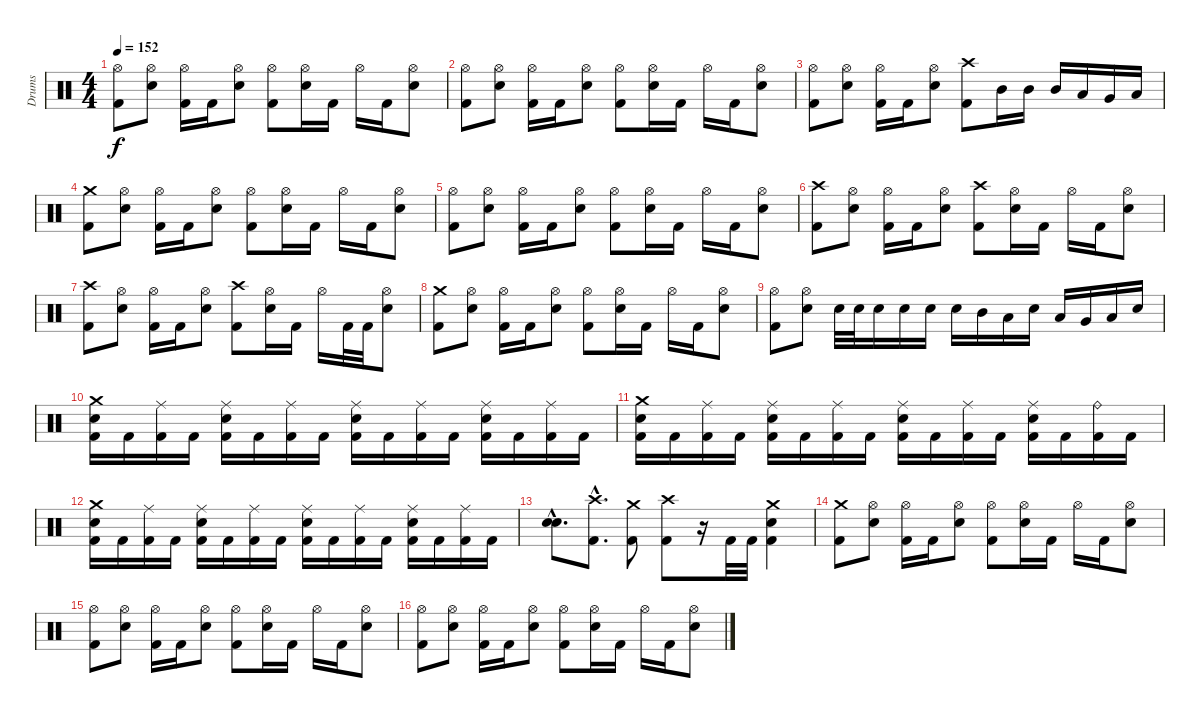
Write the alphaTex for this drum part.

\track ("Drums" "Drums") {instrument percussion}
\staff {score}
\articulation defaults
\ts (4 4)
\tempo 152
\clef neutral
\ks c
("Hi-Hat (open)" "Kick (hit) 2").8{dy f} ("Hi-Hat (open)" "Snare (hit) 2").8 ("Hi-Hat (open)" "Kick (hit) 2").16 "Kick (hit) 2".16 ("Hi-Hat (open)" "Snare (hit) 2").8 ("Hi-Hat (open)" "Kick (hit) 2").8 ("Hi-Hat (open)" "Snare (hit) 2").16 "Kick (hit) 2".16 "Hi-Hat (open)".16 "Kick (hit) 2".16 ("Hi-Hat (open)" "Snare (hit) 2").8 |
("Hi-Hat (open)" "Kick (hit) 2").8 ("Hi-Hat (open)" "Snare (hit) 2").8 ("Hi-Hat (open)" "Kick (hit) 2").16 "Kick (hit) 2".16 ("Hi-Hat (open)" "Snare (hit) 2").8 ("Hi-Hat (open)" "Kick (hit) 2").8 ("Hi-Hat (open)" "Snare (hit) 2").16 "Kick (hit) 2".16 "Hi-Hat (open)".16 "Kick (hit) 2".16 ("Hi-Hat (open)" "Snare (hit) 2").8 |
("Hi-Hat (open)" "Kick (hit) 2").8 ("Hi-Hat (open)" "Snare (hit) 2").8 ("Hi-Hat (open)" "Kick (hit) 2").16 "Kick (hit) 2".16 ("Hi-Hat (open)" "Snare (hit) 2").8 ("Crash high (hit)" "Kick (hit) 2").8 "Mid Tom (hit)".16 "Mid Tom (hit)".16 "Mid Tom (hit)".16 "Low Tom (hit)".16 "Very Low Tom (hit)".16 "Low Floor Tom (hit)".16 |
("Crash medium (hit)" "Kick (hit) 2").8 ("Hi-Hat (open)" "Snare (hit) 2").8 ("Hi-Hat (open)" "Kick (hit) 2").16 "Kick (hit) 2".16 ("Hi-Hat (open)" "Snare (hit) 2").8 ("Hi-Hat (open)" "Kick (hit) 2").8 ("Hi-Hat (open)" "Snare (hit) 2").16 "Kick (hit) 2".16 "Hi-Hat (open)".16 "Kick (hit) 2".16 ("Hi-Hat (open)" "Snare (hit) 2").8 |
("Hi-Hat (open)" "Kick (hit) 2").8 ("Hi-Hat (open)" "Snare (hit) 2").8 ("Hi-Hat (open)" "Kick (hit) 2").16 "Kick (hit) 2".16 ("Hi-Hat (open)" "Snare (hit) 2").8 ("Hi-Hat (open)" "Kick (hit) 2").8 ("Hi-Hat (open)" "Snare (hit) 2").16 "Kick (hit) 2".16 "Hi-Hat (open)".16 "Kick (hit) 2".16 ("Hi-Hat (open)" "Snare (hit) 2").8 |
("Crash high (hit)" "Kick (hit) 2").8 ("Hi-Hat (open)" "Snare (hit) 2").8 ("Hi-Hat (open)" "Kick (hit) 2").16 "Kick (hit) 2".16 ("Hi-Hat (open)" "Snare (hit) 2").8 ("Crash high (hit)" "Kick (hit) 2").8 ("Hi-Hat (open)" "Snare (hit) 2").16 "Kick (hit) 2".16 "Hi-Hat (open)".16 "Kick (hit) 2".16 ("Hi-Hat (open)" "Snare (hit) 2").8 |
("Crash high (hit)" "Kick (hit) 2").8 ("Hi-Hat (open)" "Snare (hit) 2").8 ("Hi-Hat (open)" "Kick (hit) 2").16 "Kick (hit) 2".16 ("Hi-Hat (open)" "Snare (hit) 2").8 ("Crash high (hit)" "Kick (hit) 2").8 ("Hi-Hat (open)" "Snare (hit) 2").16 "Kick (hit) 2".16 "Hi-Hat (open)".16 "Kick (hit) 2".32 "Kick (hit) 2".32 ("Hi-Hat (open)" "Snare (hit) 2").8 |
("Crash medium (hit)" "Kick (hit) 2").8 ("Hi-Hat (open)" "Snare (hit) 2").8 ("Hi-Hat (open)" "Kick (hit) 2").16 "Kick (hit) 2".16 ("Hi-Hat (open)" "Snare (hit) 2").8 ("Hi-Hat (open)" "Kick (hit) 2").8 ("Hi-Hat (open)" "Snare (hit) 2").16 "Kick (hit) 2".16 "Hi-Hat (open)".16 "Kick (hit) 2".16 ("Hi-Hat (open)" "Snare (hit) 2").8 |
("Hi-Hat (open)" "Kick (hit) 2").8 ("Hi-Hat (open)" "Snare (hit) 2").8 "Snare (hit) 2".32 "Snare (hit) 2".32 "Snare (hit) 2".16 "Snare (hit) 2".16 "Snare (hit) 2".16 "Snare (hit) 2".16 "Mid Tom (hit)".16 "Low Tom (hit)".16 "Snare (hit) 2".16 "Low Tom (hit)".16 "Very Low Tom (hit)".16 "Low Floor Tom (hit)".16 "Snare (hit) 2".16 |
("Crash medium (hit)" "Snare (hit) 2" "Kick (hit) 2").16 "Kick (hit) 2".16 ("Ride (middle)" "Kick (hit) 2").16 "Kick (hit) 2".16 ("Ride (middle)" "Snare (hit) 2" "Kick (hit) 2").16 "Kick (hit) 2".16 ("Ride (middle)" "Kick (hit) 2").16 "Kick (hit) 2".16 ("Ride (middle)" "Snare (hit) 2" "Kick (hit) 2").16 "Kick (hit) 2".16 ("Ride (middle)" "Kick (hit) 2").16 "Kick (hit) 2".16 ("Ride (middle)" "Snare (hit) 2" "Kick (hit) 2").16 "Kick (hit) 2".16 ("Ride (middle)" "Kick (hit) 2").16 "Kick (hit) 2".16 |
("Crash medium (hit)" "Snare (hit) 2" "Kick (hit) 2").16 "Kick (hit) 2".16 ("Ride (middle)" "Kick (hit) 2").16 "Kick (hit) 2".16 ("Ride (middle)" "Snare (hit) 2" "Kick (hit) 2").16 "Kick (hit) 2".16 ("Ride (middle)" "Kick (hit) 2").16 "Kick (hit) 2".16 ("Ride (middle)" "Snare (hit) 2" "Kick (hit) 2").16 "Kick (hit) 2".16 ("Ride (middle)" "Kick (hit) 2").16 "Kick (hit) 2".16 ("Ride (middle)" "Snare (hit) 2" "Kick (hit) 2").16 "Kick (hit) 2".16 ("Ride (bell)" "Kick (hit) 2").16 "Kick (hit) 2".16 |
("Crash medium (hit)" "Snare (hit) 2" "Kick (hit) 2").16 "Kick (hit) 2".16 ("Ride (middle)" "Kick (hit) 2").16 "Kick (hit) 2".16 ("Ride (middle)" "Snare (hit) 2" "Kick (hit) 2").16 "Kick (hit) 2".16 ("Ride (middle)" "Kick (hit) 2").16 "Kick (hit) 2".16 ("Ride (middle)" "Snare (hit) 2" "Kick (hit) 2").16 "Kick (hit) 2".16 ("Ride (middle)" "Kick (hit) 2").16 "Kick (hit) 2".16 ("Ride (middle)" "Snare (hit) 2" "Kick (hit) 2").16 "Kick (hit) 2".16 ("Ride (middle)" "Kick (hit) 2").16 "Kick (hit) 2".16 |
("Snare (hit) 2"{hac} "Snare (hit) 2"{hac}).8{d bu 240} ("Crash high (hit)"{hac} "Kick (hit) 2"{hac}).8{d} ("Crash medium (hit)" "Kick (hit) 2").8 ("Crash high (hit)" "Kick (hit) 2").8 r.16 "Kick (hit) 2".32 "Kick (hit) 2".32 ("Crash medium (hit)" "Snare (hit) 2" "Kick (hit) 2").4 |
("Crash medium (hit)" "Kick (hit) 2").8 ("Hi-Hat (open)" "Snare (hit) 2").8 ("Hi-Hat (open)" "Kick (hit) 2").16 "Kick (hit) 2".16 ("Hi-Hat (open)" "Snare (hit) 2").8 ("Hi-Hat (open)" "Kick (hit) 2").8 ("Hi-Hat (open)" "Snare (hit) 2").16 "Kick (hit) 2".16 "Hi-Hat (open)".16 "Kick (hit) 2".16 ("Hi-Hat (open)" "Snare (hit) 2").8 |
("Hi-Hat (open)" "Kick (hit) 2").8 ("Hi-Hat (open)" "Snare (hit) 2").8 ("Hi-Hat (open)" "Kick (hit) 2").16 "Kick (hit) 2".16 ("Hi-Hat (open)" "Snare (hit) 2").8 ("Hi-Hat (open)" "Kick (hit) 2").8 ("Hi-Hat (open)" "Snare (hit) 2").16 "Kick (hit) 2".16 "Hi-Hat (open)".16 "Kick (hit) 2".16 ("Hi-Hat (open)" "Snare (hit) 2").8 |
("Hi-Hat (open)" "Kick (hit) 2").8 ("Hi-Hat (open)" "Snare (hit) 2").8 ("Hi-Hat (open)" "Kick (hit) 2").16 "Kick (hit) 2".16 ("Hi-Hat (open)" "Snare (hit) 2").8 ("Hi-Hat (open)" "Kick (hit) 2").8 ("Hi-Hat (open)" "Snare (hit) 2").16 "Kick (hit) 2".16 "Hi-Hat (open)".16 "Kick (hit) 2".16 ("Hi-Hat (open)" "Snare (hit) 2").8
